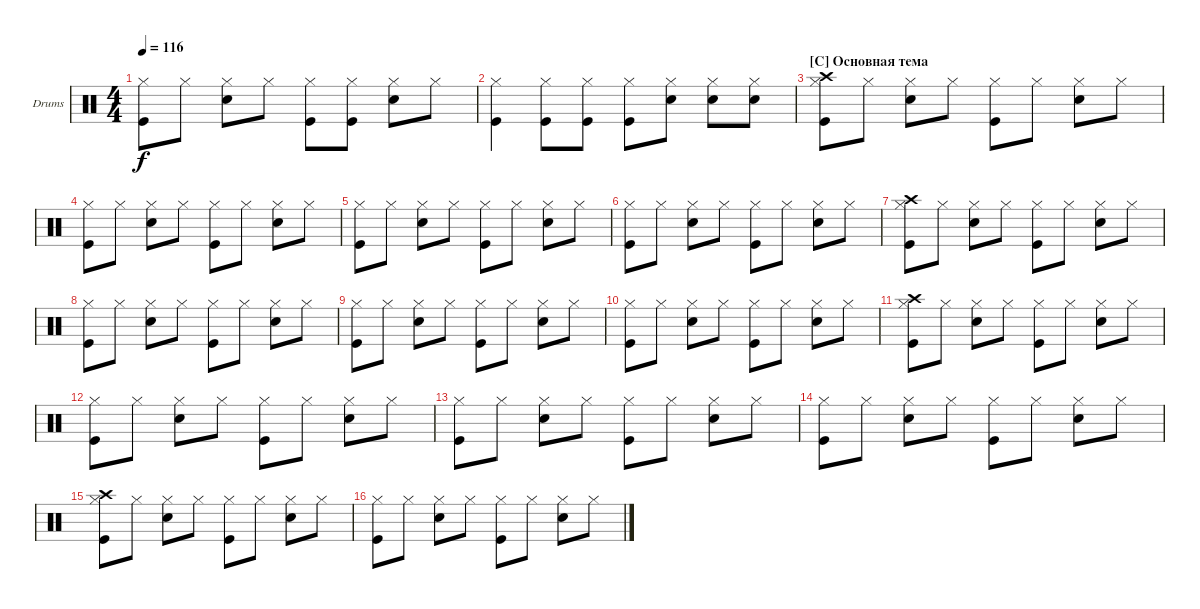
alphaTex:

\defaultSystemsLayout 4
\bracketExtendMode groupsimilarinstruments
\firstSystemTrackNameOrientation horizontal
\otherSystemsTrackNameOrientation horizontal
\track ("Drumkit" "Drums") {instrument percussion}
\staff {score}
\articulation defaults
\ts (4 4)
\tempo 116
\clef neutral
\ks c
("Hi-Hat (closed)" "Kick (hit)").8{dy f} "Hi-Hat (closed)".8 ("Hi-Hat (closed)" "Snare (hit) 2").8 "Hi-Hat (closed)".8 ("Hi-Hat (closed)" "Kick (hit)").8 ("Hi-Hat (closed)" "Kick (hit)").8 ("Hi-Hat (closed)" "Snare (hit) 2").8 "Hi-Hat (closed)".8 |
("Hi-Hat (closed)" "Kick (hit)").4 ("Hi-Hat (closed)" "Kick (hit)").8 ("Hi-Hat (closed)" "Kick (hit)").8 ("Hi-Hat (closed)" "Kick (hit)").8 ("Hi-Hat (closed)" "Snare (hit) 2").8 ("Hi-Hat (closed)" "Snare (hit) 2").8 ("Hi-Hat (closed)" "Snare (hit) 2").8 |
\section ("C" "Основная тема")
("Hi-Hat (closed)" "Crash high (hit)" "Kick (hit)").8 "Hi-Hat (closed)".8 ("Hi-Hat (closed)" "Snare (hit) 2").8 "Hi-Hat (closed)".8 ("Hi-Hat (closed)" "Kick (hit)").8 "Hi-Hat (closed)".8 ("Hi-Hat (closed)" "Snare (hit) 2").8 "Hi-Hat (closed)".8 |
("Hi-Hat (closed)" "Kick (hit)").8 "Hi-Hat (closed)".8 ("Hi-Hat (closed)" "Snare (hit) 2").8 "Hi-Hat (closed)".8 ("Hi-Hat (closed)" "Kick (hit)").8 "Hi-Hat (closed)".8 ("Hi-Hat (closed)" "Snare (hit) 2").8 "Hi-Hat (closed)".8 |
("Hi-Hat (closed)" "Kick (hit)").8 "Hi-Hat (closed)".8 ("Hi-Hat (closed)" "Snare (hit) 2").8 "Hi-Hat (closed)".8 ("Hi-Hat (closed)" "Kick (hit)").8 "Hi-Hat (closed)".8 ("Hi-Hat (closed)" "Snare (hit) 2").8 "Hi-Hat (closed)".8 |
("Hi-Hat (closed)" "Kick (hit)").8 "Hi-Hat (closed)".8 ("Hi-Hat (closed)" "Snare (hit) 2").8 "Hi-Hat (closed)".8 ("Hi-Hat (closed)" "Kick (hit)").8 "Hi-Hat (closed)".8 ("Hi-Hat (closed)" "Snare (hit) 2").8 "Hi-Hat (closed)".8 |
("Hi-Hat (closed)" "Crash high (hit)" "Kick (hit)").8 "Hi-Hat (closed)".8 ("Hi-Hat (closed)" "Snare (hit) 2").8 "Hi-Hat (closed)".8 ("Hi-Hat (closed)" "Kick (hit)").8 "Hi-Hat (closed)".8 ("Hi-Hat (closed)" "Snare (hit) 2").8 "Hi-Hat (closed)".8 |
("Hi-Hat (closed)" "Kick (hit)").8 "Hi-Hat (closed)".8 ("Hi-Hat (closed)" "Snare (hit) 2").8 "Hi-Hat (closed)".8 ("Hi-Hat (closed)" "Kick (hit)").8 "Hi-Hat (closed)".8 ("Hi-Hat (closed)" "Snare (hit) 2").8 "Hi-Hat (closed)".8 |
("Hi-Hat (closed)" "Kick (hit)").8 "Hi-Hat (closed)".8 ("Hi-Hat (closed)" "Snare (hit) 2").8 "Hi-Hat (closed)".8 ("Hi-Hat (closed)" "Kick (hit)").8 "Hi-Hat (closed)".8 ("Hi-Hat (closed)" "Snare (hit) 2").8 "Hi-Hat (closed)".8 |
("Hi-Hat (closed)" "Kick (hit)").8 "Hi-Hat (closed)".8 ("Hi-Hat (closed)" "Snare (hit) 2").8 "Hi-Hat (closed)".8 ("Hi-Hat (closed)" "Kick (hit)").8 "Hi-Hat (closed)".8 ("Hi-Hat (closed)" "Snare (hit) 2").8 "Hi-Hat (closed)".8 |
("Hi-Hat (closed)" "Crash high (hit)" "Kick (hit)").8 "Hi-Hat (closed)".8 ("Hi-Hat (closed)" "Snare (hit) 2").8 "Hi-Hat (closed)".8 ("Hi-Hat (closed)" "Kick (hit)").8 "Hi-Hat (closed)".8 ("Hi-Hat (closed)" "Snare (hit) 2").8 "Hi-Hat (closed)".8 |
("Hi-Hat (closed)" "Kick (hit)").8 "Hi-Hat (closed)".8 ("Hi-Hat (closed)" "Snare (hit) 2").8 "Hi-Hat (closed)".8 ("Hi-Hat (closed)" "Kick (hit)").8 "Hi-Hat (closed)".8 ("Hi-Hat (closed)" "Snare (hit) 2").8 "Hi-Hat (closed)".8 |
("Hi-Hat (closed)" "Kick (hit)").8 "Hi-Hat (closed)".8 ("Hi-Hat (closed)" "Snare (hit) 2").8 "Hi-Hat (closed)".8 ("Hi-Hat (closed)" "Kick (hit)").8 "Hi-Hat (closed)".8 ("Hi-Hat (closed)" "Snare (hit) 2").8 "Hi-Hat (closed)".8 |
("Hi-Hat (closed)" "Kick (hit)").8 "Hi-Hat (closed)".8 ("Hi-Hat (closed)" "Snare (hit) 2").8 "Hi-Hat (closed)".8 ("Hi-Hat (closed)" "Kick (hit)").8 "Hi-Hat (closed)".8 ("Hi-Hat (closed)" "Snare (hit) 2").8 "Hi-Hat (closed)".8 |
("Hi-Hat (closed)" "Crash high (hit)" "Kick (hit)").8 "Hi-Hat (closed)".8 ("Hi-Hat (closed)" "Snare (hit) 2").8 "Hi-Hat (closed)".8 ("Hi-Hat (closed)" "Kick (hit)").8 "Hi-Hat (closed)".8 ("Hi-Hat (closed)" "Snare (hit) 2").8 "Hi-Hat (closed)".8 |
("Hi-Hat (closed)" "Kick (hit)").8 "Hi-Hat (closed)".8 ("Hi-Hat (closed)" "Snare (hit) 2").8 "Hi-Hat (closed)".8 ("Hi-Hat (closed)" "Kick (hit)").8 "Hi-Hat (closed)".8 ("Hi-Hat (closed)" "Snare (hit) 2").8 "Hi-Hat (closed)".8
